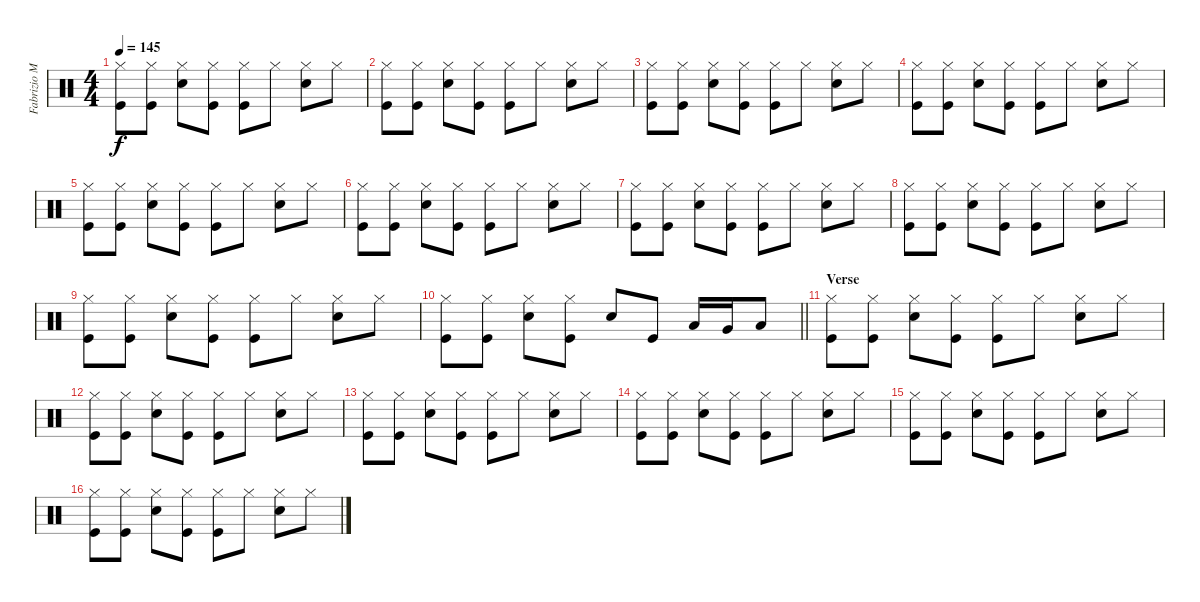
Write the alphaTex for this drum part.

\track ("Fabrizio Moretti" "Fabrizio M") {instrument percussion}
\staff {score}
\articulation defaults
\ts (4 4)
\tempo 145
\clef neutral
\ks c
("Hi-Hat (closed)" "Kick (hit)").8{dy f} ("Hi-Hat (closed)" "Kick (hit)").8 ("Hi-Hat (closed)" "Snare (hit) 2").8 ("Hi-Hat (closed)" "Kick (hit)").8 ("Hi-Hat (closed)" "Kick (hit)").8 "Hi-Hat (closed)".8 ("Hi-Hat (closed)" "Snare (hit) 2").8 "Hi-Hat (closed)".8 |
("Hi-Hat (closed)" "Kick (hit)").8 ("Hi-Hat (closed)" "Kick (hit)").8 ("Hi-Hat (closed)" "Snare (hit) 2").8 ("Hi-Hat (closed)" "Kick (hit)").8 ("Hi-Hat (closed)" "Kick (hit)").8 "Hi-Hat (closed)".8 ("Hi-Hat (closed)" "Snare (hit) 2").8 "Hi-Hat (closed)".8 |
("Hi-Hat (closed)" "Kick (hit)").8 ("Hi-Hat (closed)" "Kick (hit)").8 ("Hi-Hat (closed)" "Snare (hit) 2").8 ("Hi-Hat (closed)" "Kick (hit)").8 ("Hi-Hat (closed)" "Kick (hit)").8 "Hi-Hat (closed)".8 ("Hi-Hat (closed)" "Snare (hit) 2").8 "Hi-Hat (closed)".8 |
("Hi-Hat (closed)" "Kick (hit)").8 ("Hi-Hat (closed)" "Kick (hit)").8 ("Hi-Hat (closed)" "Snare (hit) 2").8 ("Hi-Hat (closed)" "Kick (hit)").8 ("Hi-Hat (closed)" "Kick (hit)").8 "Hi-Hat (closed)".8 ("Hi-Hat (closed)" "Snare (hit) 2").8 "Hi-Hat (closed)".8 |
("Hi-Hat (closed)" "Kick (hit)").8 ("Hi-Hat (closed)" "Kick (hit)").8 ("Hi-Hat (closed)" "Snare (hit) 2").8 ("Hi-Hat (closed)" "Kick (hit)").8 ("Hi-Hat (closed)" "Kick (hit)").8 "Hi-Hat (closed)".8 ("Hi-Hat (closed)" "Snare (hit) 2").8 "Hi-Hat (closed)".8 |
("Hi-Hat (closed)" "Kick (hit)").8 ("Hi-Hat (closed)" "Kick (hit)").8 ("Hi-Hat (closed)" "Snare (hit) 2").8 ("Hi-Hat (closed)" "Kick (hit)").8 ("Hi-Hat (closed)" "Kick (hit)").8 "Hi-Hat (closed)".8 ("Hi-Hat (closed)" "Snare (hit) 2").8 "Hi-Hat (closed)".8 |
("Hi-Hat (closed)" "Kick (hit)").8 ("Hi-Hat (closed)" "Kick (hit)").8 ("Hi-Hat (closed)" "Snare (hit) 2").8 ("Hi-Hat (closed)" "Kick (hit)").8 ("Hi-Hat (closed)" "Kick (hit)").8 "Hi-Hat (closed)".8 ("Hi-Hat (closed)" "Snare (hit) 2").8 "Hi-Hat (closed)".8 |
("Hi-Hat (closed)" "Kick (hit)").8 ("Hi-Hat (closed)" "Kick (hit)").8 ("Hi-Hat (closed)" "Snare (hit) 2").8 ("Hi-Hat (closed)" "Kick (hit)").8 ("Hi-Hat (closed)" "Kick (hit)").8 "Hi-Hat (closed)".8 ("Hi-Hat (closed)" "Snare (hit) 2").8 "Hi-Hat (closed)".8 |
("Hi-Hat (closed)" "Kick (hit)").8 ("Hi-Hat (closed)" "Kick (hit)").8 ("Hi-Hat (closed)" "Snare (hit) 2").8 ("Hi-Hat (closed)" "Kick (hit)").8 ("Hi-Hat (closed)" "Kick (hit)").8 "Hi-Hat (closed)".8 ("Hi-Hat (closed)" "Snare (hit) 2").8 "Hi-Hat (closed)".8 |
\barLineRight lightlight
("Hi-Hat (closed)" "Kick (hit)").8 ("Hi-Hat (closed)" "Kick (hit)").8 ("Hi-Hat (closed)" "Snare (hit) 2").8 ("Hi-Hat (closed)" "Kick (hit)").8 "Snare (hit) 2".8 "Kick (hit)".8 "Low Tom (hit)".16 "Very Low Tom (hit)".16 "Low Floor Tom (hit)".8 |
\section ("" "Verse")
("Hi-Hat (closed)" "Kick (hit)").8 ("Hi-Hat (closed)" "Kick (hit)").8 ("Hi-Hat (closed)" "Snare (hit) 2").8 ("Hi-Hat (closed)" "Kick (hit)").8 ("Hi-Hat (closed)" "Kick (hit)").8 "Hi-Hat (closed)".8 ("Hi-Hat (closed)" "Snare (hit) 2").8 "Hi-Hat (closed)".8 |
("Hi-Hat (closed)" "Kick (hit)").8 ("Hi-Hat (closed)" "Kick (hit)").8 ("Hi-Hat (closed)" "Snare (hit) 2").8 ("Hi-Hat (closed)" "Kick (hit)").8 ("Hi-Hat (closed)" "Kick (hit)").8 "Hi-Hat (closed)".8 ("Hi-Hat (closed)" "Snare (hit) 2").8 "Hi-Hat (closed)".8 |
("Hi-Hat (closed)" "Kick (hit)").8 ("Hi-Hat (closed)" "Kick (hit)").8 ("Hi-Hat (closed)" "Snare (hit) 2").8 ("Hi-Hat (closed)" "Kick (hit)").8 ("Hi-Hat (closed)" "Kick (hit)").8 "Hi-Hat (closed)".8 ("Hi-Hat (closed)" "Snare (hit) 2").8 "Hi-Hat (closed)".8 |
("Hi-Hat (closed)" "Kick (hit)").8 ("Hi-Hat (closed)" "Kick (hit)").8 ("Hi-Hat (closed)" "Snare (hit) 2").8 ("Hi-Hat (closed)" "Kick (hit)").8 ("Hi-Hat (closed)" "Kick (hit)").8 "Hi-Hat (closed)".8 ("Hi-Hat (closed)" "Snare (hit) 2").8 "Hi-Hat (closed)".8 |
("Hi-Hat (closed)" "Kick (hit)").8 ("Hi-Hat (closed)" "Kick (hit)").8 ("Hi-Hat (closed)" "Snare (hit) 2").8 ("Hi-Hat (closed)" "Kick (hit)").8 ("Hi-Hat (closed)" "Kick (hit)").8 "Hi-Hat (closed)".8 ("Hi-Hat (closed)" "Snare (hit) 2").8 "Hi-Hat (closed)".8 |
("Hi-Hat (closed)" "Kick (hit)").8 ("Hi-Hat (closed)" "Kick (hit)").8 ("Hi-Hat (closed)" "Snare (hit) 2").8 ("Hi-Hat (closed)" "Kick (hit)").8 ("Hi-Hat (closed)" "Kick (hit)").8 "Hi-Hat (closed)".8 ("Hi-Hat (closed)" "Snare (hit) 2").8 "Hi-Hat (closed)".8
